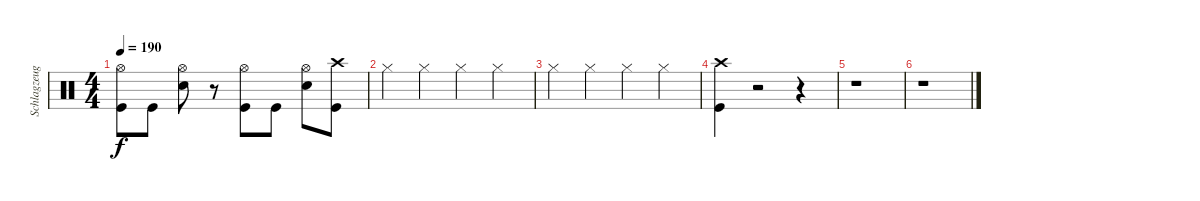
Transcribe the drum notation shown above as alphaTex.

\track ("Schlagzeug" "Schlagzeug") {instrument percussion}
\staff {score}
\articulation defaults
\ts (4 4)
\tempo 190
\clef neutral
\ks c
("Kick (hit)" "Hi-Hat (open)").8{dy f} "Kick (hit)".8 ("Electric Snare (hit)" "Hi-Hat (open)").8 r.8 ("Kick (hit)" "Hi-Hat (open)").8 "Kick (hit)".8 ("Electric Snare (hit)" "Hi-Hat (open)").8 ("Kick (hit)" "Crash high (hit)").8 |
"Hi-Hat (closed)".4 "Hi-Hat (closed)".4 "Hi-Hat (closed)".4 "Hi-Hat (closed)".4 |
"Hi-Hat (closed)".4 "Hi-Hat (closed)".4 "Hi-Hat (closed)".4 "Hi-Hat (closed)".4 |
("Crash high (hit)" "Kick (hit)").4 r.2 r.4 |
r.1 |
r.1
